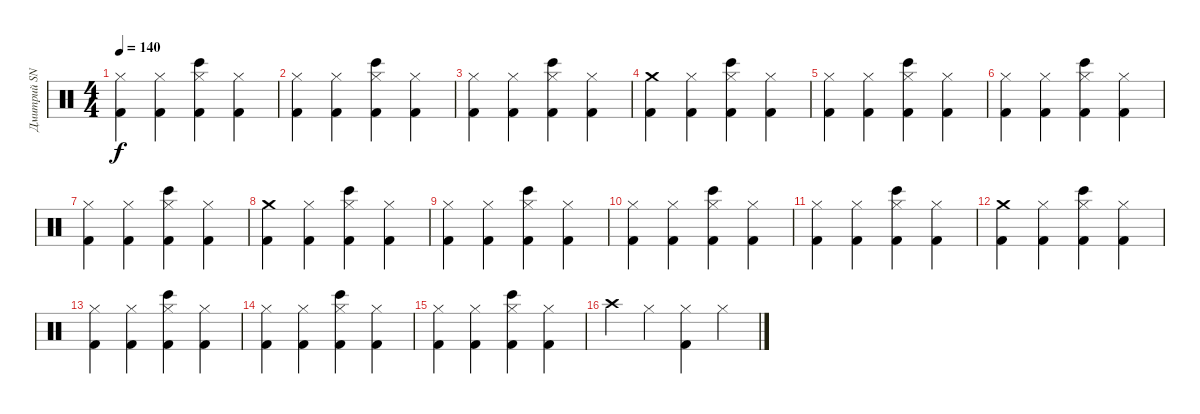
\track ("Дмитрий SNAKE Хакимов" "Дмитрий SN") {instrument percussion}
\staff {score}
\articulation defaults
\ts (4 4)
\tempo 140
\clef neutral
\ks c
("Hi-Hat (closed)" "Kick (hit) 2").4{dy f} ("Hi-Hat (closed)" "Kick (hit) 2").4 ("Hi-Hat (closed)" "Bongo High (hit)" "Kick (hit) 2").4 ("Hi-Hat (closed)" "Kick (hit) 2").4 |
("Hi-Hat (closed)" "Kick (hit) 2").4 ("Hi-Hat (closed)" "Kick (hit) 2").4 ("Hi-Hat (closed)" "Bongo High (hit)" "Kick (hit) 2").4 ("Hi-Hat (closed)" "Kick (hit) 2").4 |
("Hi-Hat (closed)" "Kick (hit) 2").4 ("Hi-Hat (closed)" "Kick (hit) 2").4 ("Hi-Hat (closed)" "Bongo High (hit)" "Kick (hit) 2").4 ("Hi-Hat (closed)" "Kick (hit) 2").4 |
("Crash medium (hit)" "Kick (hit) 2").4 ("Hi-Hat (closed)" "Kick (hit) 2").4 ("Hi-Hat (closed)" "Bongo High (hit)" "Kick (hit) 2").4 ("Hi-Hat (closed)" "Kick (hit) 2").4 |
("Hi-Hat (closed)" "Kick (hit) 2").4 ("Hi-Hat (closed)" "Kick (hit) 2").4 ("Hi-Hat (closed)" "Bongo High (hit)" "Kick (hit) 2").4 ("Hi-Hat (closed)" "Kick (hit) 2").4 |
("Hi-Hat (closed)" "Kick (hit) 2").4 ("Hi-Hat (closed)" "Kick (hit) 2").4 ("Hi-Hat (closed)" "Bongo High (hit)" "Kick (hit) 2").4 ("Hi-Hat (closed)" "Kick (hit) 2").4 |
("Hi-Hat (closed)" "Kick (hit) 2").4 ("Hi-Hat (closed)" "Kick (hit) 2").4 ("Hi-Hat (closed)" "Bongo High (hit)" "Kick (hit) 2").4 ("Hi-Hat (closed)" "Kick (hit) 2").4 |
("Crash medium (hit)" "Kick (hit) 2").4 ("Hi-Hat (closed)" "Kick (hit) 2").4 ("Hi-Hat (closed)" "Bongo High (hit)" "Kick (hit) 2").4 ("Hi-Hat (closed)" "Kick (hit) 2").4 |
("Hi-Hat (closed)" "Kick (hit) 2").4 ("Hi-Hat (closed)" "Kick (hit) 2").4 ("Hi-Hat (closed)" "Bongo High (hit)" "Kick (hit) 2").4 ("Hi-Hat (closed)" "Kick (hit) 2").4 |
("Hi-Hat (closed)" "Kick (hit) 2").4 ("Hi-Hat (closed)" "Kick (hit) 2").4 ("Hi-Hat (closed)" "Bongo High (hit)" "Kick (hit) 2").4 ("Hi-Hat (closed)" "Kick (hit) 2").4 |
("Hi-Hat (closed)" "Kick (hit) 2").4 ("Hi-Hat (closed)" "Kick (hit) 2").4 ("Hi-Hat (closed)" "Bongo High (hit)" "Kick (hit) 2").4 ("Hi-Hat (closed)" "Kick (hit) 2").4 |
("Crash medium (hit)" "Kick (hit) 2").4 ("Hi-Hat (closed)" "Kick (hit) 2").4 ("Hi-Hat (closed)" "Bongo High (hit)" "Kick (hit) 2").4 ("Hi-Hat (closed)" "Kick (hit) 2").4 |
("Hi-Hat (closed)" "Kick (hit) 2").4 ("Hi-Hat (closed)" "Kick (hit) 2").4 ("Hi-Hat (closed)" "Bongo High (hit)" "Kick (hit) 2").4 ("Hi-Hat (closed)" "Kick (hit) 2").4 |
("Hi-Hat (closed)" "Kick (hit) 2").4 ("Hi-Hat (closed)" "Kick (hit) 2").4 ("Hi-Hat (closed)" "Bongo High (hit)" "Kick (hit) 2").4 ("Hi-Hat (closed)" "Kick (hit) 2").4 |
("Hi-Hat (closed)" "Kick (hit) 2").4 ("Hi-Hat (closed)" "Kick (hit) 2").4 ("Hi-Hat (closed)" "Bongo High (hit)" "Kick (hit) 2").4 ("Hi-Hat (closed)" "Kick (hit) 2").4 |
"Crash high (hit)".4 "Hi-Hat (closed)".4 ("Hi-Hat (closed)" "Kick (hit) 2").4 "Hi-Hat (closed)".4
